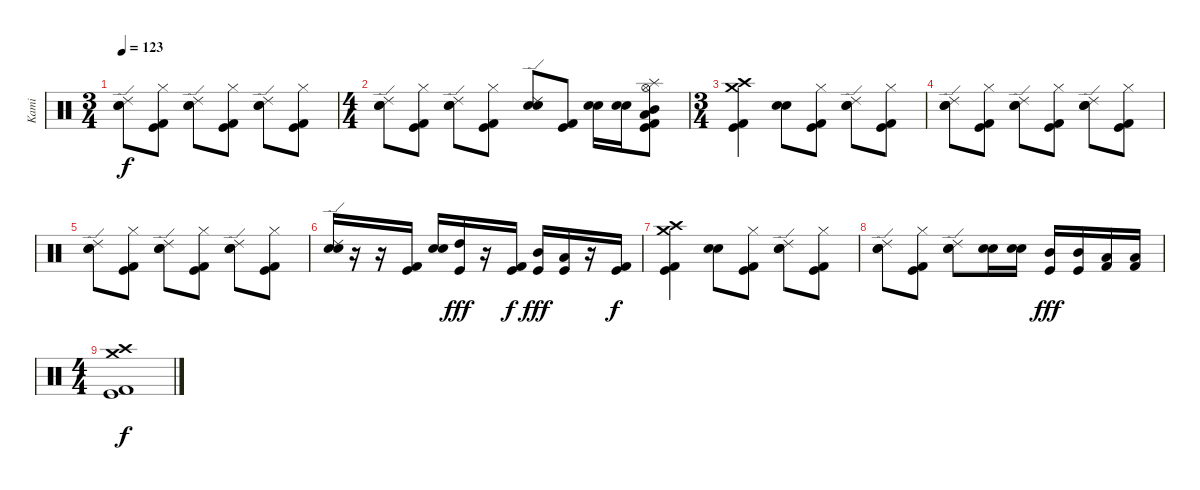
\track ("Kami" "Kami") {instrument percussion}
\staff {score}
\articulation defaults
\ts (3 4)
\tempo 123
\clef neutral
\ks c
("Snare (hit) 2" "Electric Snare (hit)" "Ride (edge) 2").8{dy f} ("Kick (hit)" "Kick (hit) 2" "Hi-Hat (closed)").8 ("Snare (hit) 2" "Electric Snare (hit)" "Ride (edge) 2").8 ("Kick (hit)" "Kick (hit) 2" "Hi-Hat (closed)").8 ("Snare (hit) 2" "Electric Snare (hit)" "Ride (edge) 2").8 ("Kick (hit)" "Kick (hit) 2" "Hi-Hat (closed)").8 |
\ts (4 4)
("Snare (hit) 2" "Electric Snare (hit)" "Ride (edge) 2").8 ("Kick (hit)" "Kick (hit) 2" "Hi-Hat (closed)").8 ("Snare (hit) 2" "Electric Snare (hit)" "Ride (edge) 2").8 ("Kick (hit)" "Kick (hit) 2" "Hi-Hat (closed)").8 ("Snare (hit) 2" "Electric Snare (hit)" "Ride (edge) 2").8 ("Kick (hit)" "Kick (hit) 2").8 ("Electric Snare (hit)" "Snare (hit) 2").16 ("Electric Snare (hit)" "Snare (hit) 2").16 ("Kick (hit)" "Kick (hit) 2" "Hi-Hat (open)" "Low Tom (hit)" "Mid Tom (hit)" "Splash (hit)").8 |
\ts (3 4)
("Kick (hit)" "Kick (hit) 2" "Crash medium (hit)" "Crash high (hit)").4 ("Electric Snare (hit)" "Snare (hit) 2").8 ("Kick (hit)" "Kick (hit) 2" "Hi-Hat (closed)").8 ("Snare (hit) 2" "Electric Snare (hit)" "Ride (edge) 2").8 ("Kick (hit)" "Kick (hit) 2" "Hi-Hat (closed)").8 |
("Snare (hit) 2" "Electric Snare (hit)" "Ride (edge) 2").8 ("Kick (hit)" "Kick (hit) 2" "Hi-Hat (closed)").8 ("Snare (hit) 2" "Electric Snare (hit)" "Ride (edge) 2").8 ("Kick (hit)" "Kick (hit) 2" "Hi-Hat (closed)").8 ("Snare (hit) 2" "Electric Snare (hit)" "Ride (edge) 2").8 ("Kick (hit)" "Kick (hit) 2" "Hi-Hat (closed)").8 |
("Snare (hit) 2" "Electric Snare (hit)" "Ride (edge) 2").8 ("Kick (hit)" "Kick (hit) 2" "Hi-Hat (closed)").8 ("Snare (hit) 2" "Electric Snare (hit)" "Ride (edge) 2").8 ("Kick (hit)" "Kick (hit) 2" "Hi-Hat (closed)").8 ("Snare (hit) 2" "Electric Snare (hit)" "Ride (edge) 2").8 ("Kick (hit)" "Kick (hit) 2" "Hi-Hat (closed)").8 |
("Snare (hit) 2" "Electric Snare (hit)" "Ride (edge) 2").16 r.16 r.16 ("Kick (hit)" "Kick (hit) 2").16 ("Electric Snare (hit)" "Snare (hit) 2").16 ("Kick (hit)" "High Tom (hit)").16{dy fff} r.16 ("Kick (hit)" "Kick (hit) 2").16{dy f} ("Kick (hit)" "Mid Tom (hit)").16{dy fff} ("Kick (hit)" "Low Tom (hit)").16 r.16 ("Kick (hit)" "Kick (hit) 2").16{dy f} |
("Kick (hit)" "Kick (hit) 2" "Crash medium (hit)" "Crash high (hit)").4 ("Electric Snare (hit)" "Snare (hit) 2").8 ("Kick (hit)" "Kick (hit) 2" "Hi-Hat (closed)").8 ("Snare (hit) 2" "Electric Snare (hit)" "Ride (edge) 2").8 ("Kick (hit)" "Kick (hit) 2" "Hi-Hat (closed)").8 |
("Snare (hit) 2" "Electric Snare (hit)" "Ride (edge) 2").8 ("Kick (hit)" "Kick (hit) 2" "Hi-Hat (closed)").8 ("Snare (hit) 2" "Electric Snare (hit)" "Ride (edge) 2").8 ("Snare (hit) 2" "Electric Snare (hit)").16 ("Snare (hit) 2" "Electric Snare (hit)").16 ("Kick (hit)" "Mid Tom (hit)").16{dy fff} ("Kick (hit)" "Mid Tom (hit)").16 ("Kick (hit) 2" "Low Tom (hit)").16 ("Kick (hit) 2" "Low Tom (hit)").16 |
\ts (4 4)
("Kick (hit)" "Kick (hit) 2" "Crash high (hit)" "Crash medium (hit)").1{dy f}
